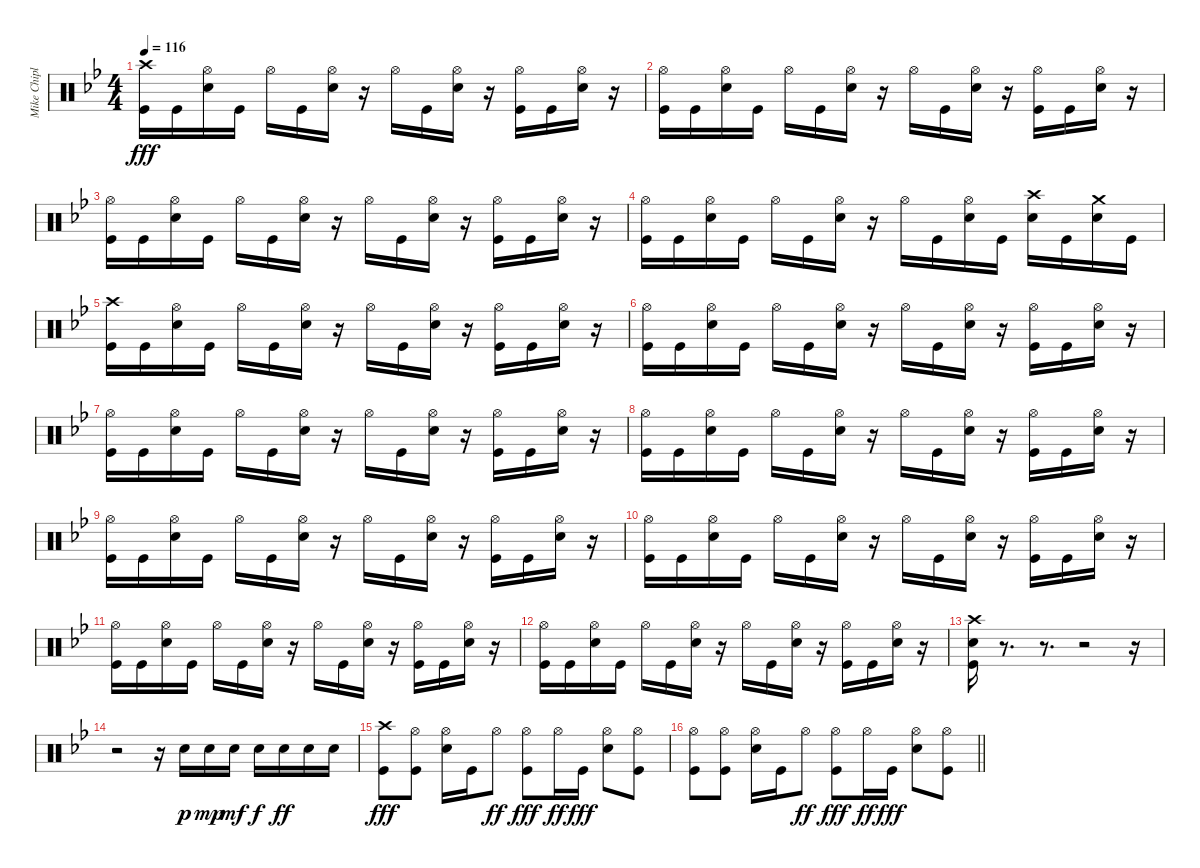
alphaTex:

\track ("Mike Chiplin" "Mike Chipl") {instrument percussion}
\staff {score}
\articulation defaults
\ts (4 4)
\tempo 116
\clef neutral
\ks bb
("Crash high (hit)" "Kick (hit)").16{dy fff} "Kick (hit)".16 ("Hi-Hat (open)" "Snare (hit) 2").16 "Kick (hit)".16 "Hi-Hat (open)".16 "Kick (hit)".16 ("Hi-Hat (open)" "Snare (hit) 2").16 r.16 "Hi-Hat (open)".16 "Kick (hit)".16 ("Hi-Hat (open)" "Snare (hit) 2").16 r.16 ("Hi-Hat (open)" "Kick (hit)").16 "Kick (hit)".16 ("Hi-Hat (open)" "Snare (hit) 2").16 r.16 |
("Hi-Hat (open)" "Kick (hit)").16 "Kick (hit)".16 ("Hi-Hat (open)" "Snare (hit) 2").16 "Kick (hit)".16 "Hi-Hat (open)".16 "Kick (hit)".16 ("Hi-Hat (open)" "Snare (hit) 2").16 r.16 "Hi-Hat (open)".16 "Kick (hit)".16 ("Hi-Hat (open)" "Snare (hit) 2").16 r.16 ("Hi-Hat (open)" "Kick (hit)").16 "Kick (hit)".16 ("Hi-Hat (open)" "Snare (hit) 2").16 r.16 |
("Hi-Hat (open)" "Kick (hit)").16 "Kick (hit)".16 ("Hi-Hat (open)" "Snare (hit) 2").16 "Kick (hit)".16 "Hi-Hat (open)".16 "Kick (hit)".16 ("Hi-Hat (open)" "Snare (hit) 2").16 r.16 "Hi-Hat (open)".16 "Kick (hit)".16 ("Hi-Hat (open)" "Snare (hit) 2").16 r.16 ("Hi-Hat (open)" "Kick (hit)").16 "Kick (hit)".16 ("Hi-Hat (open)" "Snare (hit) 2").16 r.16 |
("Hi-Hat (open)" "Kick (hit)").16 "Kick (hit)".16 ("Hi-Hat (open)" "Snare (hit) 2").16 "Kick (hit)".16 "Hi-Hat (open)".16 "Kick (hit)".16 ("Hi-Hat (open)" "Snare (hit) 2").16 r.16 "Hi-Hat (open)".16 "Kick (hit)".16 ("Hi-Hat (open)" "Snare (hit) 2").16 "Kick (hit)".16 ("Crash high (hit)" "Snare (hit) 2").16 "Kick (hit)".16 ("Crash medium (hit)" "Snare (hit) 2").16 "Kick (hit)".16 |
("Crash high (hit)" "Kick (hit)").16 "Kick (hit)".16 ("Hi-Hat (open)" "Snare (hit) 2").16 "Kick (hit)".16 "Hi-Hat (open)".16 "Kick (hit)".16 ("Hi-Hat (open)" "Snare (hit) 2").16 r.16 "Hi-Hat (open)".16 "Kick (hit)".16 ("Hi-Hat (open)" "Snare (hit) 2").16 r.16 ("Hi-Hat (open)" "Kick (hit)").16 "Kick (hit)".16 ("Hi-Hat (open)" "Snare (hit) 2").16 r.16 |
("Hi-Hat (open)" "Kick (hit)").16 "Kick (hit)".16 ("Hi-Hat (open)" "Snare (hit) 2").16 "Kick (hit)".16 "Hi-Hat (open)".16 "Kick (hit)".16 ("Hi-Hat (open)" "Snare (hit) 2").16 r.16 "Hi-Hat (open)".16 "Kick (hit)".16 ("Hi-Hat (open)" "Snare (hit) 2").16 r.16 ("Hi-Hat (open)" "Kick (hit)").16 "Kick (hit)".16 ("Hi-Hat (open)" "Snare (hit) 2").16 r.16 |
("Hi-Hat (open)" "Kick (hit)").16 "Kick (hit)".16 ("Hi-Hat (open)" "Snare (hit) 2").16 "Kick (hit)".16 "Hi-Hat (open)".16 "Kick (hit)".16 ("Hi-Hat (open)" "Snare (hit) 2").16 r.16 "Hi-Hat (open)".16 "Kick (hit)".16 ("Hi-Hat (open)" "Snare (hit) 2").16 r.16 ("Hi-Hat (open)" "Kick (hit)").16 "Kick (hit)".16 ("Hi-Hat (open)" "Snare (hit) 2").16 r.16 |
("Hi-Hat (open)" "Kick (hit)").16 "Kick (hit)".16 ("Hi-Hat (open)" "Snare (hit) 2").16 "Kick (hit)".16 "Hi-Hat (open)".16 "Kick (hit)".16 ("Hi-Hat (open)" "Snare (hit) 2").16 r.16 "Hi-Hat (open)".16 "Kick (hit)".16 ("Hi-Hat (open)" "Snare (hit) 2").16 r.16 ("Hi-Hat (open)" "Kick (hit)").16 "Kick (hit)".16 ("Hi-Hat (open)" "Snare (hit) 2").16 r.16 |
("Hi-Hat (open)" "Kick (hit)").16 "Kick (hit)".16 ("Hi-Hat (open)" "Snare (hit) 2").16 "Kick (hit)".16 "Hi-Hat (open)".16 "Kick (hit)".16 ("Hi-Hat (open)" "Snare (hit) 2").16 r.16 "Hi-Hat (open)".16 "Kick (hit)".16 ("Hi-Hat (open)" "Snare (hit) 2").16 r.16 ("Hi-Hat (open)" "Kick (hit)").16 "Kick (hit)".16 ("Hi-Hat (open)" "Snare (hit) 2").16 r.16 |
("Hi-Hat (open)" "Kick (hit)").16 "Kick (hit)".16 ("Hi-Hat (open)" "Snare (hit) 2").16 "Kick (hit)".16 "Hi-Hat (open)".16 "Kick (hit)".16 ("Hi-Hat (open)" "Snare (hit) 2").16 r.16 "Hi-Hat (open)".16 "Kick (hit)".16 ("Hi-Hat (open)" "Snare (hit) 2").16 r.16 ("Hi-Hat (open)" "Kick (hit)").16 "Kick (hit)".16 ("Hi-Hat (open)" "Snare (hit) 2").16 r.16 |
("Hi-Hat (open)" "Kick (hit)").16 "Kick (hit)".16 ("Hi-Hat (open)" "Snare (hit) 2").16 "Kick (hit)".16 "Hi-Hat (open)".16 "Kick (hit)".16 ("Hi-Hat (open)" "Snare (hit) 2").16 r.16 "Hi-Hat (open)".16 "Kick (hit)".16 ("Hi-Hat (open)" "Snare (hit) 2").16 r.16 ("Hi-Hat (open)" "Kick (hit)").16 "Kick (hit)".16 ("Hi-Hat (open)" "Snare (hit) 2").16 r.16 |
("Hi-Hat (open)" "Kick (hit)").16 "Kick (hit)".16 ("Hi-Hat (open)" "Snare (hit) 2").16 "Kick (hit)".16 "Hi-Hat (open)".16 "Kick (hit)".16 ("Hi-Hat (open)" "Snare (hit) 2").16 r.16 "Hi-Hat (open)".16 "Kick (hit)".16 ("Hi-Hat (open)" "Snare (hit) 2").16 r.16 ("Hi-Hat (open)" "Kick (hit)").16 "Kick (hit)".16 ("Hi-Hat (open)" "Snare (hit) 2").16 r.16 |
("Crash high (hit)" "Snare (hit) 2" "Kick (hit)").16 r.8{d} r.8{d} r.2 r.16 |
r.2 r.16 "Snare (hit) 2".16{dy p} "Snare (hit) 2".16{dy mp} "Snare (hit) 2".16{dy mf} "Snare (hit) 2".16{dy f} "Snare (hit) 2".16{dy ff} "Snare (hit) 2".16 "Snare (hit) 2".16 |
("Crash high (hit)" "Kick (hit)").8{dy fff} ("Hi-Hat (open)" "Kick (hit)").8 ("Hi-Hat (open)" "Snare (hit) 2").16 "Kick (hit)".16 "Hi-Hat (open)".8{dy ff} ("Hi-Hat (open)" "Kick (hit)").8{dy fff} "Hi-Hat (open)".16{dy ff} "Kick (hit)".16{dy fff} ("Hi-Hat (open)" "Snare (hit) 2").8 ("Hi-Hat (open)" "Kick (hit)").8 |
\barLineRight lightlight
("Hi-Hat (open)" "Kick (hit)").8 ("Hi-Hat (open)" "Kick (hit)").8 ("Hi-Hat (open)" "Snare (hit) 2").16 "Kick (hit)".16 "Hi-Hat (open)".8{dy ff} ("Hi-Hat (open)" "Kick (hit)").8{dy fff} "Hi-Hat (open)".16{dy ff} "Kick (hit)".16{dy fff} ("Hi-Hat (open)" "Snare (hit) 2").8 ("Hi-Hat (open)" "Kick (hit)").8
